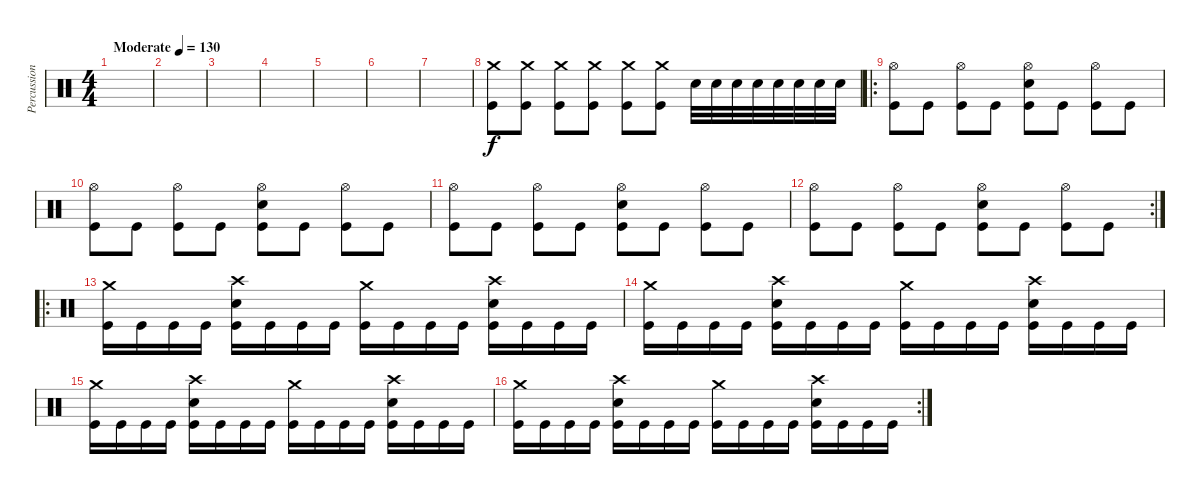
\track ("Percussion" "Percussion") {instrument percussion}
\staff {score}
\articulation defaults
\ts (4 4)
\tempo (130 "Moderate")
\clef neutral
\ks c
|
|
|
|
|
|
|
("Crash medium (hit)" "Kick (hit)").8 ("Crash medium (hit)" "Kick (hit)").8 ("Crash medium (hit)" "Kick (hit)").8 ("Crash medium (hit)" "Kick (hit)").8 ("Crash medium (hit)" "Kick (hit)").8 ("Crash medium (hit)" "Kick (hit)").8 "Snare (hit) 2".32 "Snare (hit) 2".32 "Snare (hit) 2".32 "Snare (hit) 2".32 "Snare (hit) 2".32 "Snare (hit) 2".32 "Snare (hit) 2".32 "Snare (hit) 2".32 |
\ro
("Hi-Hat (open)" "Kick (hit)").8 "Kick (hit)".8 ("Hi-Hat (open)" "Kick (hit)").8 "Kick (hit)".8 ("Hi-Hat (open)" "Snare (hit) 2" "Kick (hit)").8 "Kick (hit)".8 ("Hi-Hat (open)" "Kick (hit)").8 "Kick (hit)".8 |
("Hi-Hat (open)" "Kick (hit)").8 "Kick (hit)".8 ("Hi-Hat (open)" "Kick (hit)").8 "Kick (hit)".8 ("Hi-Hat (open)" "Snare (hit) 2" "Kick (hit)").8 "Kick (hit)".8 ("Hi-Hat (open)" "Kick (hit)").8 "Kick (hit)".8 |
("Hi-Hat (open)" "Kick (hit)").8 "Kick (hit)".8 ("Hi-Hat (open)" "Kick (hit)").8 "Kick (hit)".8 ("Hi-Hat (open)" "Snare (hit) 2" "Kick (hit)").8 "Kick (hit)".8 ("Hi-Hat (open)" "Kick (hit)").8 "Kick (hit)".8 |
\rc 2
("Hi-Hat (open)" "Kick (hit)").8 "Kick (hit)".8 ("Hi-Hat (open)" "Kick (hit)").8 "Kick (hit)".8 ("Hi-Hat (open)" "Snare (hit) 2" "Kick (hit)").8 "Kick (hit)".8 ("Hi-Hat (open)" "Kick (hit)").8 "Kick (hit)".8 |
\ro
("Crash medium (hit)" "Kick (hit)").16 "Kick (hit)".16 "Kick (hit)".16 "Kick (hit)".16 ("Crash high (hit)" "Snare (hit) 2" "Kick (hit)").16 "Kick (hit)".16 "Kick (hit)".16 "Kick (hit)".16 ("Crash medium (hit)" "Kick (hit)").16 "Kick (hit)".16 "Kick (hit)".16 "Kick (hit)".16 ("Crash high (hit)" "Snare (hit) 2" "Kick (hit)").16 "Kick (hit)".16 "Kick (hit)".16 "Kick (hit)".16 |
("Crash medium (hit)" "Kick (hit)").16 "Kick (hit)".16 "Kick (hit)".16 "Kick (hit)".16 ("Crash high (hit)" "Snare (hit) 2" "Kick (hit)").16 "Kick (hit)".16 "Kick (hit)".16 "Kick (hit)".16 ("Crash medium (hit)" "Kick (hit)").16 "Kick (hit)".16 "Kick (hit)".16 "Kick (hit)".16 ("Crash high (hit)" "Snare (hit) 2" "Kick (hit)").16 "Kick (hit)".16 "Kick (hit)".16 "Kick (hit)".16 |
("Crash medium (hit)" "Kick (hit)").16 "Kick (hit)".16 "Kick (hit)".16 "Kick (hit)".16 ("Crash high (hit)" "Snare (hit) 2" "Kick (hit)").16 "Kick (hit)".16 "Kick (hit)".16 "Kick (hit)".16 ("Crash medium (hit)" "Kick (hit)").16 "Kick (hit)".16 "Kick (hit)".16 "Kick (hit)".16 ("Crash high (hit)" "Snare (hit) 2" "Kick (hit)").16 "Kick (hit)".16 "Kick (hit)".16 "Kick (hit)".16 |
\rc 2
("Crash medium (hit)" "Kick (hit)").16 "Kick (hit)".16 "Kick (hit)".16 "Kick (hit)".16 ("Crash high (hit)" "Snare (hit) 2" "Kick (hit)").16 "Kick (hit)".16 "Kick (hit)".16 "Kick (hit)".16 ("Crash medium (hit)" "Kick (hit)").16 "Kick (hit)".16 "Kick (hit)".16 "Kick (hit)".16 ("Crash high (hit)" "Snare (hit) 2" "Kick (hit)").16 "Kick (hit)".16 "Kick (hit)".16 "Kick (hit)".16
